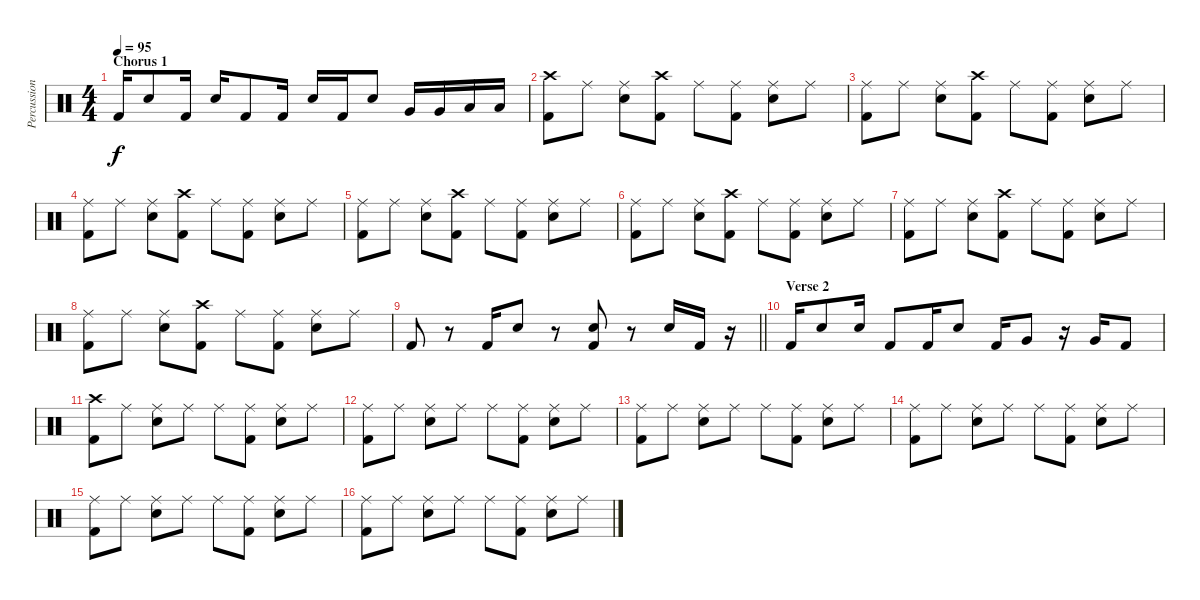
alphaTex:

\track ("Percussion" "Percussion") {instrument percussion}
\staff {score}
\articulation defaults
\ts (4 4)
\section ("" "Chorus 1")
\tempo 95
\clef neutral
\ks c "Kick (hit) 2".16{dy f} "Snare (hit) 2".8 "Kick (hit) 2".16 "Snare (hit) 2".16 "Kick (hit) 2".8 "Kick (hit) 2".16 "Snare (hit) 2".16 "Kick (hit) 2".16 "Snare (hit) 2".8 "Very Low Tom (hit)".16 "Very Low Tom (hit)".16 "Low Floor Tom (hit)".16 "Low Floor Tom (hit)".16
|
("Crash high (hit)" "Kick (hit) 2").8 "Ride (middle)".8 ("Ride (middle)" "Snare (hit) 2").8 ("Crash high (hit)" "Kick (hit) 2").8 "Ride (middle)".8 ("Ride (middle)" "Kick (hit) 2").8 ("Ride (middle)" "Snare (hit) 2").8 "Ride (middle)".8 |
("Ride (middle)" "Kick (hit) 2").8 "Ride (middle)".8 ("Ride (middle)" "Snare (hit) 2").8 ("Crash high (hit)" "Kick (hit) 2").8 "Ride (middle)".8 ("Ride (middle)" "Kick (hit) 2").8 ("Ride (middle)" "Snare (hit) 2").8 "Ride (middle)".8 |
("Ride (middle)" "Kick (hit) 2").8 "Ride (middle)".8 ("Ride (middle)" "Snare (hit) 2").8 ("Crash high (hit)" "Kick (hit) 2").8 "Ride (middle)".8 ("Ride (middle)" "Kick (hit) 2").8 ("Ride (middle)" "Snare (hit) 2").8 "Ride (middle)".8 |
("Ride (middle)" "Kick (hit) 2").8 "Ride (middle)".8 ("Ride (middle)" "Snare (hit) 2").8 ("Crash high (hit)" "Kick (hit) 2").8 "Ride (middle)".8 ("Ride (middle)" "Kick (hit) 2").8 ("Ride (middle)" "Snare (hit) 2").8 "Ride (middle)".8 |
("Ride (middle)" "Kick (hit) 2").8 "Ride (middle)".8 ("Ride (middle)" "Snare (hit) 2").8 ("Crash high (hit)" "Kick (hit) 2").8 "Ride (middle)".8 ("Ride (middle)" "Kick (hit) 2").8 ("Ride (middle)" "Snare (hit) 2").8 "Ride (middle)".8 |
("Ride (middle)" "Kick (hit) 2").8 "Ride (middle)".8 ("Ride (middle)" "Snare (hit) 2").8 ("Crash high (hit)" "Kick (hit) 2").8 "Ride (middle)".8 ("Ride (middle)" "Kick (hit) 2").8 ("Ride (middle)" "Snare (hit) 2").8 "Ride (middle)".8 |
("Ride (middle)" "Kick (hit) 2").8 "Ride (middle)".8 ("Ride (middle)" "Snare (hit) 2").8 ("Crash high (hit)" "Kick (hit) 2").8 "Ride (middle)".8 ("Ride (middle)" "Kick (hit) 2").8 ("Ride (middle)" "Snare (hit) 2").8 "Ride (middle)".8 |
\barLineRight lightlight "Kick (hit) 2".8
r.8 "Kick (hit) 2".16 "Snare (hit) 2".8 r.8 ("Snare (hit) 2" "Kick (hit) 2").8 r.8 "Snare (hit) 2".16 "Kick (hit) 2".16 r.16 |
\section ("" "Verse 2")
"Kick (hit) 2".16 "Snare (hit) 2".8 "Snare (hit) 2".16 "Kick (hit) 2".8 "Kick (hit) 2".16 "Snare (hit) 2".8 "Kick (hit) 2".16 "Very Low Tom (hit)".8 r.16 "Very Low Tom (hit)".16 "Kick (hit) 2".8 |
("Crash high (hit)" "Kick (hit) 2").8 "Ride (middle)".8 ("Ride (middle)" "Snare (hit) 2").8 "Ride (middle)".8 "Ride (middle)".8 ("Ride (middle)" "Kick (hit) 2").8 ("Ride (middle)" "Snare (hit) 2").8 "Ride (middle)".8 |
("Ride (middle)" "Kick (hit) 2").8 "Ride (middle)".8 ("Ride (middle)" "Snare (hit) 2").8 "Ride (middle)".8 "Ride (middle)".8 ("Ride (middle)" "Kick (hit) 2").8 ("Ride (middle)" "Snare (hit) 2").8 "Ride (middle)".8 |
("Ride (middle)" "Kick (hit) 2").8 "Ride (middle)".8 ("Ride (middle)" "Snare (hit) 2").8 "Ride (middle)".8 "Ride (middle)".8 ("Ride (middle)" "Kick (hit) 2").8 ("Ride (middle)" "Snare (hit) 2").8 "Ride (middle)".8 |
("Ride (middle)" "Kick (hit) 2").8 "Ride (middle)".8 ("Ride (middle)" "Snare (hit) 2").8 "Ride (middle)".8 "Ride (middle)".8 ("Ride (middle)" "Kick (hit) 2").8 ("Ride (middle)" "Snare (hit) 2").8 "Ride (middle)".8 |
("Ride (middle)" "Kick (hit) 2").8 "Ride (middle)".8 ("Ride (middle)" "Snare (hit) 2").8 "Ride (middle)".8 "Ride (middle)".8 ("Ride (middle)" "Kick (hit) 2").8 ("Ride (middle)" "Snare (hit) 2").8 "Ride (middle)".8 |
("Ride (middle)" "Kick (hit) 2").8 "Ride (middle)".8 ("Ride (middle)" "Snare (hit) 2").8 "Ride (middle)".8 "Ride (middle)".8 ("Ride (middle)" "Kick (hit) 2").8 ("Ride (middle)" "Snare (hit) 2").8 "Ride (middle)".8
